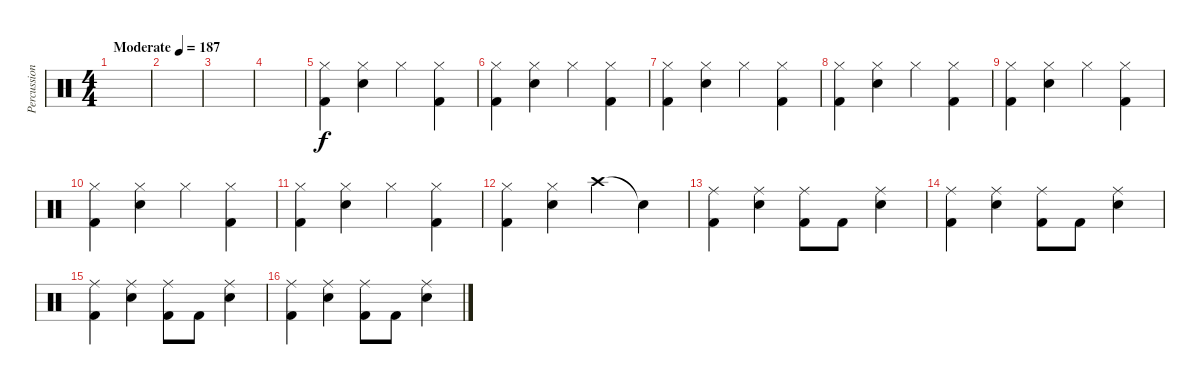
\track ("Percussion" "Percussion") {instrument percussion}
\staff {score}
\articulation defaults
\ts (4 4)
\tempo (187 "Moderate")
\clef neutral
\ks c
|
|
|
|
("Kick (hit) 2" "Hi-Hat (closed)").4 ("Snare (hit) 2" "Hi-Hat (closed)").4 "Hi-Hat (closed)".4 ("Kick (hit) 2" "Hi-Hat (closed)").4 |
("Kick (hit) 2" "Hi-Hat (closed)").4 ("Snare (hit) 2" "Hi-Hat (closed)").4 "Hi-Hat (closed)".4 ("Kick (hit) 2" "Hi-Hat (closed)").4 |
("Kick (hit) 2" "Hi-Hat (closed)").4 ("Snare (hit) 2" "Hi-Hat (closed)").4 "Hi-Hat (closed)".4 ("Kick (hit) 2" "Hi-Hat (closed)").4 |
("Kick (hit) 2" "Hi-Hat (closed)").4 ("Snare (hit) 2" "Hi-Hat (closed)").4 "Hi-Hat (closed)".4 ("Kick (hit) 2" "Hi-Hat (closed)").4 |
("Kick (hit) 2" "Hi-Hat (closed)").4 ("Snare (hit) 2" "Hi-Hat (closed)").4 "Hi-Hat (closed)".4 ("Kick (hit) 2" "Hi-Hat (closed)").4 |
("Kick (hit) 2" "Hi-Hat (closed)").4 ("Snare (hit) 2" "Hi-Hat (closed)").4 "Hi-Hat (closed)".4 ("Kick (hit) 2" "Hi-Hat (closed)").4 |
("Kick (hit) 2" "Hi-Hat (closed)").4 ("Snare (hit) 2" "Hi-Hat (closed)").4 "Hi-Hat (closed)".4 ("Kick (hit) 2" "Hi-Hat (closed)").4 |
("Kick (hit) 2" "Hi-Hat (closed)").4 ("Snare (hit) 2" "Hi-Hat (closed)").4 "Crash high (hit)".4 "Snare (hit)"{t}.4 |
("Kick (hit) 2" "Ride (middle)").4 ("Snare (hit) 2" "Ride (middle)").4 ("Kick (hit) 2" "Ride (middle)").8 "Kick (hit) 2".8 ("Snare (hit) 2" "Ride (middle)").4 |
("Kick (hit) 2" "Ride (middle)").4 ("Snare (hit) 2" "Ride (middle)").4 ("Kick (hit) 2" "Ride (middle)").8 "Kick (hit) 2".8 ("Snare (hit) 2" "Ride (middle)").4 |
("Kick (hit) 2" "Ride (middle)").4 ("Snare (hit) 2" "Ride (middle)").4 ("Kick (hit) 2" "Ride (middle)").8 "Kick (hit) 2".8 ("Snare (hit) 2" "Ride (middle)").4 |
("Kick (hit) 2" "Ride (middle)").4 ("Snare (hit) 2" "Ride (middle)").4 ("Kick (hit) 2" "Ride (middle)").8 "Kick (hit) 2".8 ("Snare (hit) 2" "Ride (middle)").4
